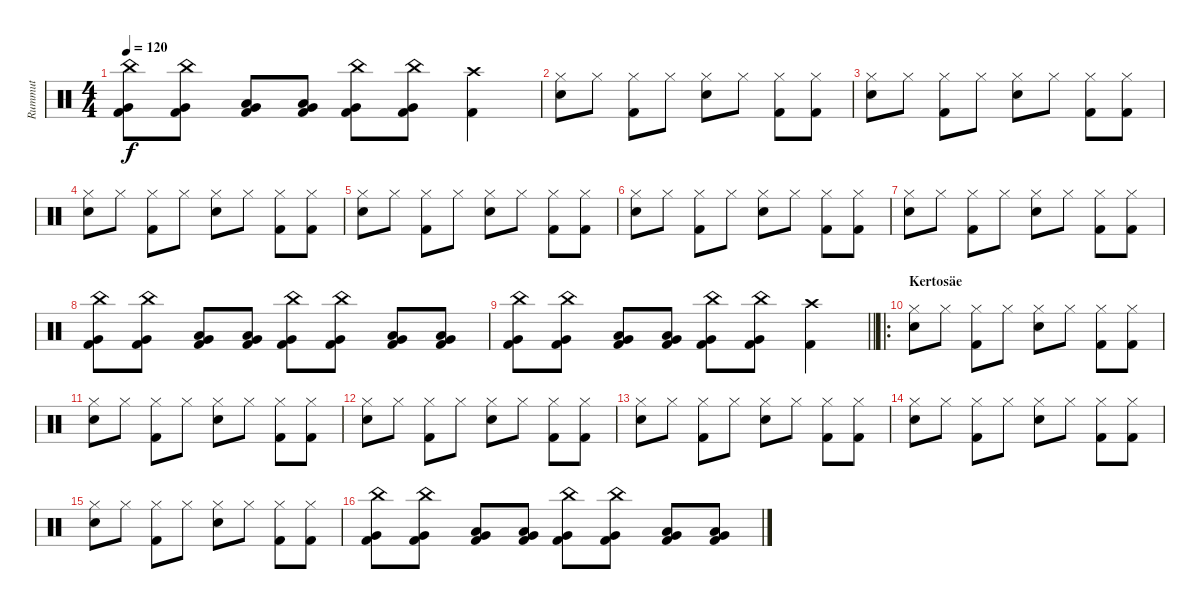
\track ("Rummut" "Rummut") {instrument percussion}
\staff {score}
\articulation defaults
\ts (4 4)
\tempo 120
\clef neutral
\ks c
("China (hit)" "Very Low Tom (hit)" "Kick (hit) 2").8{dy f} ("China (hit)" "Very Low Tom (hit)" "Kick (hit) 2").8 ("Low Floor Tom (hit)" "Very Low Tom (hit)" "Kick (hit) 2").8 ("Low Floor Tom (hit)" "Very Low Tom (hit)" "Kick (hit) 2").8 ("China (hit)" "Very Low Tom (hit)" "Kick (hit) 2").8 ("China (hit)" "Very Low Tom (hit)" "Kick (hit) 2").8 ("Crash high (hit)" "Kick (hit) 2").4 |
("Hi-Hat (closed)" "Electric Snare (hit)").8 "Hi-Hat (closed)".8 ("Hi-Hat (closed)" "Kick (hit) 2").8 "Hi-Hat (closed)".8 ("Hi-Hat (closed)" "Electric Snare (hit)").8 "Hi-Hat (closed)".8 ("Hi-Hat (closed)" "Kick (hit) 2").8 ("Hi-Hat (closed)" "Kick (hit) 2").8 |
("Hi-Hat (closed)" "Electric Snare (hit)").8 "Hi-Hat (closed)".8 ("Hi-Hat (closed)" "Kick (hit) 2").8 "Hi-Hat (closed)".8 ("Hi-Hat (closed)" "Electric Snare (hit)").8 "Hi-Hat (closed)".8 ("Hi-Hat (closed)" "Kick (hit) 2").8 ("Hi-Hat (closed)" "Kick (hit) 2").8 |
("Hi-Hat (closed)" "Electric Snare (hit)").8 "Hi-Hat (closed)".8 ("Hi-Hat (closed)" "Kick (hit) 2").8 "Hi-Hat (closed)".8 ("Hi-Hat (closed)" "Electric Snare (hit)").8 "Hi-Hat (closed)".8 ("Hi-Hat (closed)" "Kick (hit) 2").8 ("Hi-Hat (closed)" "Kick (hit) 2").8 |
("Hi-Hat (closed)" "Electric Snare (hit)").8 "Hi-Hat (closed)".8 ("Hi-Hat (closed)" "Kick (hit) 2").8 "Hi-Hat (closed)".8 ("Hi-Hat (closed)" "Electric Snare (hit)").8 "Hi-Hat (closed)".8 ("Hi-Hat (closed)" "Kick (hit) 2").8 ("Hi-Hat (closed)" "Kick (hit) 2").8 |
("Hi-Hat (closed)" "Electric Snare (hit)").8 "Hi-Hat (closed)".8 ("Hi-Hat (closed)" "Kick (hit) 2").8 "Hi-Hat (closed)".8 ("Hi-Hat (closed)" "Electric Snare (hit)").8 "Hi-Hat (closed)".8 ("Hi-Hat (closed)" "Kick (hit) 2").8 ("Hi-Hat (closed)" "Kick (hit) 2").8 |
("Hi-Hat (closed)" "Electric Snare (hit)").8 "Hi-Hat (closed)".8 ("Hi-Hat (closed)" "Kick (hit) 2").8 "Hi-Hat (closed)".8 ("Hi-Hat (closed)" "Electric Snare (hit)").8 "Hi-Hat (closed)".8 ("Hi-Hat (closed)" "Kick (hit) 2").8 ("Hi-Hat (closed)" "Kick (hit) 2").8 |
("China (hit)" "Very Low Tom (hit)" "Kick (hit) 2").8 ("China (hit)" "Very Low Tom (hit)" "Kick (hit) 2").8 ("Low Floor Tom (hit)" "Very Low Tom (hit)" "Kick (hit) 2").8 ("Low Floor Tom (hit)" "Very Low Tom (hit)" "Kick (hit) 2").8 ("China (hit)" "Very Low Tom (hit)" "Kick (hit) 2").8 ("China (hit)" "Very Low Tom (hit)" "Kick (hit) 2").8 ("Low Floor Tom (hit)" "Very Low Tom (hit)" "Kick (hit) 2").8 ("Low Floor Tom (hit)" "Very Low Tom (hit)" "Kick (hit) 2").8 |
\barLineRight lightlight
("China (hit)" "Very Low Tom (hit)" "Kick (hit) 2").8 ("China (hit)" "Very Low Tom (hit)" "Kick (hit) 2").8 ("Low Floor Tom (hit)" "Very Low Tom (hit)" "Kick (hit) 2").8 ("Low Floor Tom (hit)" "Very Low Tom (hit)" "Kick (hit) 2").8 ("China (hit)" "Very Low Tom (hit)" "Kick (hit) 2").8 ("China (hit)" "Very Low Tom (hit)" "Kick (hit) 2").8 ("Crash high (hit)" "Kick (hit) 2").4 |
\ro
\section ("" "Kertosäe")
("Hi-Hat (closed)" "Electric Snare (hit)").8 "Hi-Hat (closed)".8 ("Hi-Hat (closed)" "Kick (hit) 2").8 "Hi-Hat (closed)".8 ("Hi-Hat (closed)" "Electric Snare (hit)").8 "Hi-Hat (closed)".8 ("Hi-Hat (closed)" "Kick (hit) 2").8 ("Hi-Hat (closed)" "Kick (hit) 2").8 |
("Hi-Hat (closed)" "Electric Snare (hit)").8 "Hi-Hat (closed)".8 ("Hi-Hat (closed)" "Kick (hit) 2").8 "Hi-Hat (closed)".8 ("Hi-Hat (closed)" "Electric Snare (hit)").8 "Hi-Hat (closed)".8 ("Hi-Hat (closed)" "Kick (hit) 2").8 ("Hi-Hat (closed)" "Kick (hit) 2").8 |
("Hi-Hat (closed)" "Electric Snare (hit)").8 "Hi-Hat (closed)".8 ("Hi-Hat (closed)" "Kick (hit) 2").8 "Hi-Hat (closed)".8 ("Hi-Hat (closed)" "Electric Snare (hit)").8 "Hi-Hat (closed)".8 ("Hi-Hat (closed)" "Kick (hit) 2").8 ("Hi-Hat (closed)" "Kick (hit) 2").8 |
("Hi-Hat (closed)" "Electric Snare (hit)").8 "Hi-Hat (closed)".8 ("Hi-Hat (closed)" "Kick (hit) 2").8 "Hi-Hat (closed)".8 ("Hi-Hat (closed)" "Electric Snare (hit)").8 "Hi-Hat (closed)".8 ("Hi-Hat (closed)" "Kick (hit) 2").8 ("Hi-Hat (closed)" "Kick (hit) 2").8 |
("Hi-Hat (closed)" "Electric Snare (hit)").8 "Hi-Hat (closed)".8 ("Hi-Hat (closed)" "Kick (hit) 2").8 "Hi-Hat (closed)".8 ("Hi-Hat (closed)" "Electric Snare (hit)").8 "Hi-Hat (closed)".8 ("Hi-Hat (closed)" "Kick (hit) 2").8 ("Hi-Hat (closed)" "Kick (hit) 2").8 |
("Hi-Hat (closed)" "Electric Snare (hit)").8 "Hi-Hat (closed)".8 ("Hi-Hat (closed)" "Kick (hit) 2").8 "Hi-Hat (closed)".8 ("Hi-Hat (closed)" "Electric Snare (hit)").8 "Hi-Hat (closed)".8 ("Hi-Hat (closed)" "Kick (hit) 2").8 ("Hi-Hat (closed)" "Kick (hit) 2").8 |
("China (hit)" "Very Low Tom (hit)" "Kick (hit) 2").8 ("China (hit)" "Very Low Tom (hit)" "Kick (hit) 2").8 ("Low Floor Tom (hit)" "Very Low Tom (hit)" "Kick (hit) 2").8 ("Low Floor Tom (hit)" "Very Low Tom (hit)" "Kick (hit) 2").8 ("China (hit)" "Very Low Tom (hit)" "Kick (hit) 2").8 ("China (hit)" "Very Low Tom (hit)" "Kick (hit) 2").8 ("Low Floor Tom (hit)" "Very Low Tom (hit)" "Kick (hit) 2").8 ("Low Floor Tom (hit)" "Very Low Tom (hit)" "Kick (hit) 2").8
